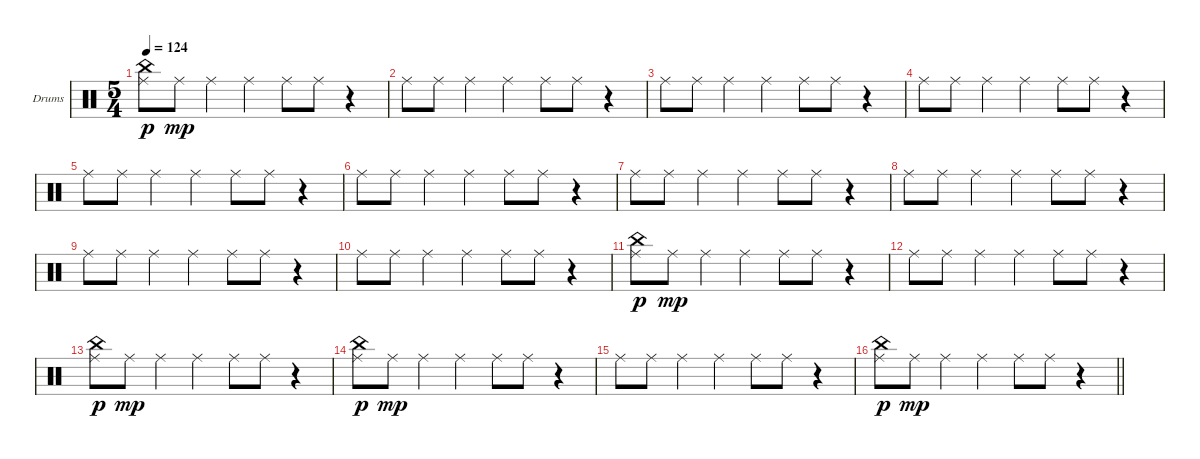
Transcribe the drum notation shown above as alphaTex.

\bracketExtendMode groupsimilarinstruments
\firstSystemTrackNameOrientation horizontal
\otherSystemsTrackNameOrientation horizontal
\track ("Drumkit" "Drums") {instrument percussion}
\staff {score}
\articulation defaults
\ts (5 4)
\tempo 124
\clef neutral
\ks aminor
("China (hit)" "Ride (middle)").8{dy p} "Ride (middle)".8{dy mp} "Ride (middle)".4 "Ride (middle)".4 "Ride (middle)".8 "Ride (middle)".8 r.4 |
"Ride (middle)".8 "Ride (middle)".8 "Ride (middle)".4 "Ride (middle)".4 "Ride (middle)".8 "Ride (middle)".8 r.4 |
"Ride (middle)".8 "Ride (middle)".8 "Ride (middle)".4 "Ride (middle)".4 "Ride (middle)".8 "Ride (middle)".8 r.4 |
"Ride (middle)".8 "Ride (middle)".8 "Ride (middle)".4 "Ride (middle)".4 "Ride (middle)".8 "Ride (middle)".8 r.4 |
"Ride (middle)".8 "Ride (middle)".8 "Ride (middle)".4 "Ride (middle)".4 "Ride (middle)".8 "Ride (middle)".8 r.4 |
"Ride (middle)".8 "Ride (middle)".8 "Ride (middle)".4 "Ride (middle)".4 "Ride (middle)".8 "Ride (middle)".8 r.4 |
"Ride (middle)".8 "Ride (middle)".8 "Ride (middle)".4 "Ride (middle)".4 "Ride (middle)".8 "Ride (middle)".8 r.4 |
"Ride (middle)".8 "Ride (middle)".8 "Ride (middle)".4 "Ride (middle)".4 "Ride (middle)".8 "Ride (middle)".8 r.4 |
"Ride (middle)".8 "Ride (middle)".8 "Ride (middle)".4 "Ride (middle)".4 "Ride (middle)".8 "Ride (middle)".8 r.4 |
"Ride (middle)".8 "Ride (middle)".8 "Ride (middle)".4 "Ride (middle)".4 "Ride (middle)".8 "Ride (middle)".8 r.4 |
("China (hit)" "Ride (middle)").8{dy p} "Ride (middle)".8{dy mp} "Ride (middle)".4 "Ride (middle)".4 "Ride (middle)".8 "Ride (middle)".8 r.4 |
"Ride (middle)".8 "Ride (middle)".8 "Ride (middle)".4 "Ride (middle)".4 "Ride (middle)".8 "Ride (middle)".8 r.4 |
("China (hit)" "Ride (middle)").8{dy p} "Ride (middle)".8{dy mp} "Ride (middle)".4 "Ride (middle)".4 "Ride (middle)".8 "Ride (middle)".8 r.4 |
("China (hit)" "Ride (middle)").8{dy p} "Ride (middle)".8{dy mp} "Ride (middle)".4 "Ride (middle)".4 "Ride (middle)".8 "Ride (middle)".8 r.4 |
"Ride (middle)".8 "Ride (middle)".8 "Ride (middle)".4 "Ride (middle)".4 "Ride (middle)".8 "Ride (middle)".8 r.4 |
\barLineRight lightlight
("China (hit)" "Ride (middle)").8{dy p} "Ride (middle)".8{dy mp} "Ride (middle)".4 "Ride (middle)".4 "Ride (middle)".8 "Ride (middle)".8 r.4
